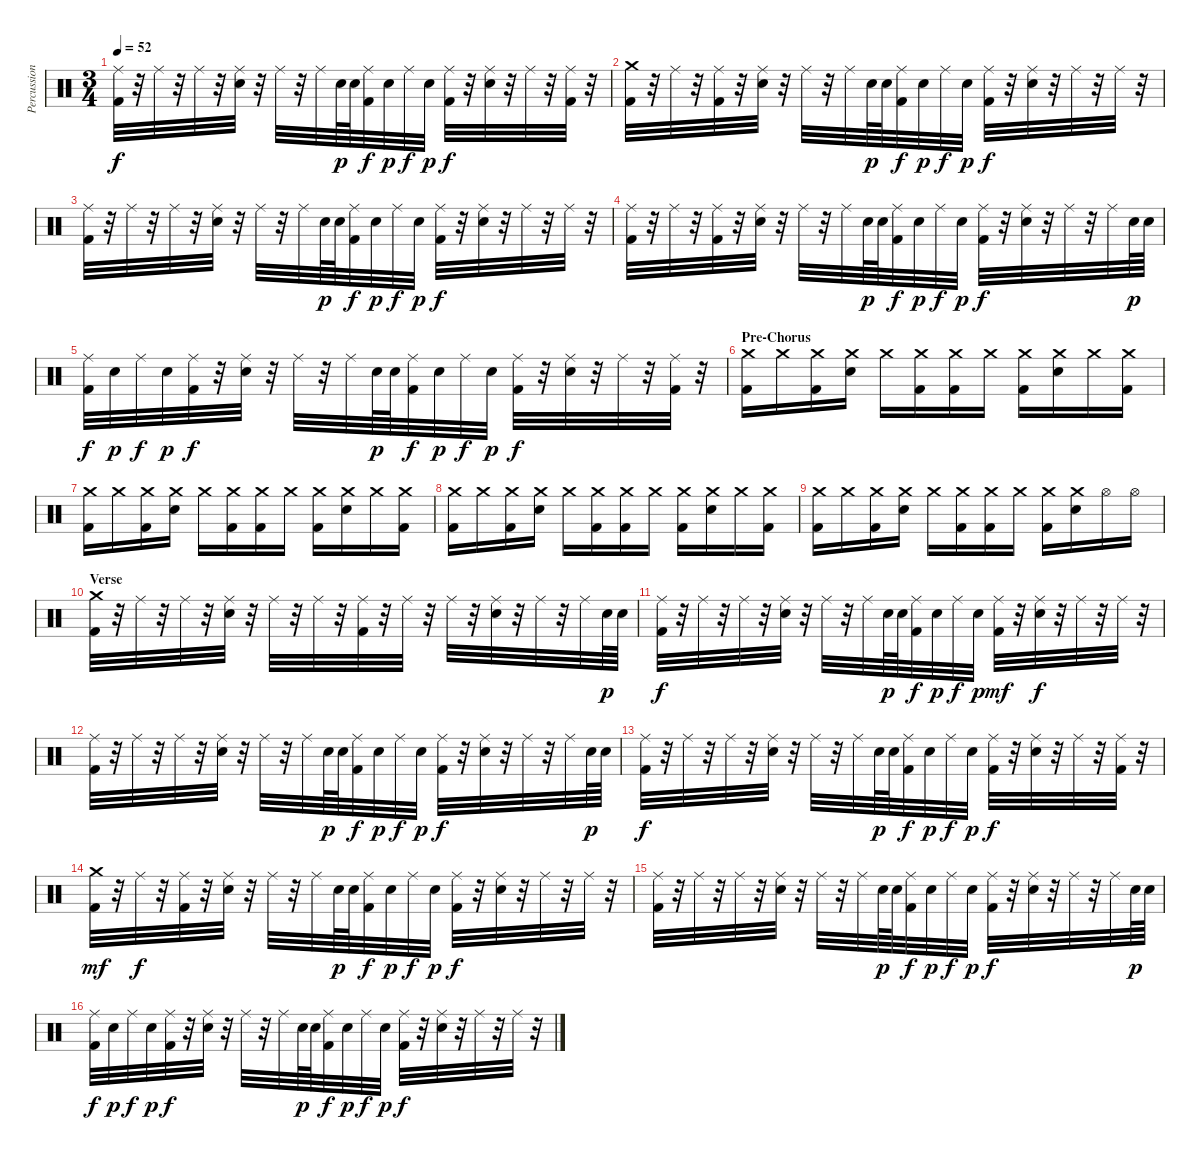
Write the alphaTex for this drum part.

\track ("Percussion" "Percussion") {instrument percussion}
\staff {score}
\articulation defaults
\ts (3 4)
\tempo 52
\clef neutral
\ks c
("Ride (middle)" "Kick (hit) 2").32{dy f} r.32 "Ride (middle)".32 r.32 "Ride (middle)".32 r.32 ("Ride (middle)" "Snare (hit) 2").32 r.32 "Ride (middle)".32 r.32 "Ride (middle)".32 "Snare (hit) 2".64{dy p} "Snare (hit) 2".64 ("Ride (middle)" "Kick (hit) 2").32{dy f} "Snare (hit) 2".32{dy p} "Ride (middle)".32{dy f} "Snare (hit) 2".32{dy p} ("Ride (middle)" "Kick (hit) 2").32{dy f} r.32 ("Ride (middle)" "Snare (hit) 2").32 r.32 "Ride (middle)".32 r.32 ("Ride (middle)" "Kick (hit) 2").32 r.32 |
("Crash medium (hit)" "Kick (hit) 2").32 r.32 "Ride (middle)".32 r.32 ("Ride (middle)" "Kick (hit) 2").32 r.32 ("Ride (middle)" "Snare (hit) 2").32 r.32 "Ride (middle)".32 r.32 "Ride (middle)".32 "Snare (hit) 2".64{dy p} "Snare (hit) 2".64 ("Ride (middle)" "Kick (hit) 2").32{dy f} "Snare (hit) 2".32{dy p} "Ride (middle)".32{dy f} "Snare (hit) 2".32{dy p} ("Ride (middle)" "Kick (hit) 2").32{dy f} r.32 ("Ride (middle)" "Snare (hit) 2").32 r.32 "Ride (middle)".32 r.32 "Ride (middle)".32 r.32 |
("Ride (middle)" "Kick (hit) 2").32 r.32 "Ride (middle)".32 r.32 "Ride (middle)".32 r.32 ("Ride (middle)" "Snare (hit) 2").32 r.32 "Ride (middle)".32 r.32 "Ride (middle)".32 "Snare (hit) 2".64{dy p} "Snare (hit) 2".64 ("Ride (middle)" "Kick (hit) 2").32{dy f} "Snare (hit) 2".32{dy p} "Ride (middle)".32{dy f} "Snare (hit) 2".32{dy p} ("Ride (middle)" "Kick (hit) 2").32{dy f} r.32 ("Ride (middle)" "Snare (hit) 2").32 r.32 "Ride (middle)".32 r.32 "Ride (middle)".32 r.32 |
("Ride (middle)" "Kick (hit) 2").32 r.32 "Ride (middle)".32 r.32 ("Ride (middle)" "Kick (hit) 2").32 r.32 ("Ride (middle)" "Snare (hit) 2").32 r.32 "Ride (middle)".32 r.32 "Ride (middle)".32 "Snare (hit) 2".64{dy p} "Snare (hit) 2".64 ("Ride (middle)" "Kick (hit) 2").32{dy f} "Snare (hit) 2".32{dy p} "Ride (middle)".32{dy f} "Snare (hit) 2".32{dy p} ("Ride (middle)" "Kick (hit) 2").32{dy f} r.32 ("Ride (middle)" "Snare (hit) 2").32 r.32 "Ride (middle)".32 r.32 "Ride (middle)".32 "Snare (hit) 2".64{dy p} "Snare (hit) 2".64 |
("Ride (middle)" "Kick (hit) 2").32{dy f} "Snare (hit) 2".32{dy p} "Ride (middle)".32{dy f} "Snare (hit) 2".32{dy p} ("Ride (middle)" "Kick (hit) 2").32{dy f} r.32 ("Ride (middle)" "Snare (hit) 2").32 r.32 "Ride (middle)".32 r.32 "Ride (middle)".32 "Snare (hit) 2".64{dy p} "Snare (hit) 2".64 ("Ride (middle)" "Kick (hit) 2").32{dy f} "Snare (hit) 2".32{dy p} "Ride (middle)".32{dy f} "Snare (hit) 2".32{dy p} ("Ride (middle)" "Kick (hit) 2").32{dy f} r.32 ("Ride (middle)" "Snare (hit) 2").32 r.32 "Ride (middle)".32 r.32 ("Ride (middle)" "Kick (hit) 2").32 r.32 |
\section ("" "Pre-Chorus")
("Crash medium (hit)" "Kick (hit) 2").16 "Crash medium (hit)".16 ("Crash medium (hit)" "Kick (hit) 2").16 ("Crash medium (hit)" "Snare (hit) 2").16 "Crash medium (hit)".16 ("Crash medium (hit)" "Kick (hit) 2").16 ("Crash medium (hit)" "Kick (hit) 2").16 "Crash medium (hit)".16 ("Crash medium (hit)" "Kick (hit) 2").16 ("Crash medium (hit)" "Snare (hit) 2").16 "Crash medium (hit)".16 ("Crash medium (hit)" "Kick (hit) 2").16 |
("Crash medium (hit)" "Kick (hit) 2").16 "Crash medium (hit)".16 ("Crash medium (hit)" "Kick (hit) 2").16 ("Crash medium (hit)" "Snare (hit) 2").16 "Crash medium (hit)".16 ("Crash medium (hit)" "Kick (hit) 2").16 ("Crash medium (hit)" "Kick (hit) 2").16 "Crash medium (hit)".16 ("Crash medium (hit)" "Kick (hit) 2").16 ("Crash medium (hit)" "Snare (hit) 2").16 "Crash medium (hit)".16 ("Crash medium (hit)" "Kick (hit) 2").16 |
("Crash medium (hit)" "Kick (hit) 2").16 "Crash medium (hit)".16 ("Crash medium (hit)" "Kick (hit) 2").16 ("Crash medium (hit)" "Snare (hit) 2").16 "Crash medium (hit)".16 ("Crash medium (hit)" "Kick (hit) 2").16 ("Crash medium (hit)" "Kick (hit) 2").16 "Crash medium (hit)".16 ("Crash medium (hit)" "Kick (hit) 2").16 ("Crash medium (hit)" "Snare (hit) 2").16 "Crash medium (hit)".16 ("Crash medium (hit)" "Kick (hit) 2").16 |
("Crash medium (hit)" "Kick (hit) 2").16 "Crash medium (hit)".16 ("Crash medium (hit)" "Kick (hit) 2").16 ("Crash medium (hit)" "Snare (hit) 2").16 "Crash medium (hit)".16 ("Crash medium (hit)" "Kick (hit) 2").16 ("Crash medium (hit)" "Kick (hit) 2").16 "Crash medium (hit)".16 ("Crash medium (hit)" "Kick (hit) 2").16 ("Crash medium (hit)" "Snare (hit) 2").16 "Hi-Hat (open)".16 "Hi-Hat (open)".16 |
\section ("" "Verse")
("Crash medium (hit)" "Kick (hit) 2").32 r.32 "Ride (middle)".32 r.32 "Ride (middle)".32 r.32 ("Ride (middle)" "Snare (hit) 2").32 r.32 "Ride (middle)".32 r.32 "Ride (middle)".32 r.32 ("Ride (middle)" "Kick (hit) 2").32 r.32 "Ride (middle)".32 r.32 "Ride (middle)".32 r.32 ("Ride (middle)" "Snare (hit) 2").32 r.32 "Ride (middle)".32 r.32 "Ride (middle)".32 "Snare (hit) 2".64{dy p} "Snare (hit) 2".64 |
("Ride (middle)" "Kick (hit) 2").32{dy f} r.32 "Ride (middle)".32 r.32 "Ride (middle)".32 r.32 ("Ride (middle)" "Snare (hit) 2").32 r.32 "Ride (middle)".32 r.32 "Ride (middle)".32 "Snare (hit) 2".64{dy p} "Snare (hit) 2".64 ("Ride (middle)" "Kick (hit) 2").32{dy f} "Snare (hit) 2".32{dy p} "Ride (middle)".32{dy f} "Snare (hit) 2".32{dy p} ("Ride (middle)" "Kick (hit) 2").32{dy mf} r.32 ("Ride (middle)" "Snare (hit) 2").32{dy f} r.32 "Ride (middle)".32 r.32 "Ride (middle)".32 r.32 |
("Ride (middle)" "Kick (hit) 2").32 r.32 "Ride (middle)".32 r.32 "Ride (middle)".32 r.32 ("Ride (middle)" "Snare (hit) 2").32 r.32 "Ride (middle)".32 r.32 "Ride (middle)".32 "Snare (hit) 2".64{dy p} "Snare (hit) 2".64 ("Ride (middle)" "Kick (hit) 2").32{dy f} "Snare (hit) 2".32{dy p} "Ride (middle)".32{dy f} "Snare (hit) 2".32{dy p} ("Ride (middle)" "Kick (hit) 2").32{dy f} r.32 ("Ride (middle)" "Snare (hit) 2").32 r.32 "Ride (middle)".32 r.32 "Ride (middle)".32 "Snare (hit) 2".64{dy p} "Snare (hit) 2".64 |
("Ride (middle)" "Kick (hit) 2").32{dy f} r.32 "Ride (middle)".32 r.32 "Ride (middle)".32 r.32 ("Ride (middle)" "Snare (hit) 2").32 r.32 "Ride (middle)".32 r.32 "Ride (middle)".32 "Snare (hit) 2".64{dy p} "Snare (hit) 2".64 ("Ride (middle)" "Kick (hit) 2").32{dy f} "Snare (hit) 2".32{dy p} "Ride (middle)".32{dy f} "Snare (hit) 2".32{dy p} ("Ride (middle)" "Kick (hit) 2").32{dy f} r.32 ("Ride (middle)" "Snare (hit) 2").32 r.32 "Ride (middle)".32 r.32 ("Ride (middle)" "Kick (hit) 2").32 r.32 |
("Crash medium (hit)" "Kick (hit) 2").32{dy mf} r.32 "Ride (middle)".32{dy f} r.32 ("Ride (middle)" "Kick (hit) 2").32 r.32 ("Ride (middle)" "Snare (hit) 2").32 r.32 "Ride (middle)".32 r.32 "Ride (middle)".32 "Snare (hit) 2".64{dy p} "Snare (hit) 2".64 ("Ride (middle)" "Kick (hit) 2").32{dy f} "Snare (hit) 2".32{dy p} "Ride (middle)".32{dy f} "Snare (hit) 2".32{dy p} ("Ride (middle)" "Kick (hit) 2").32{dy f} r.32 ("Ride (middle)" "Snare (hit) 2").32 r.32 "Ride (middle)".32 r.32 "Ride (middle)".32 r.32 |
("Ride (middle)" "Kick (hit) 2").32 r.32 "Ride (middle)".32 r.32 "Ride (middle)".32 r.32 ("Ride (middle)" "Snare (hit) 2").32 r.32 "Ride (middle)".32 r.32 "Ride (middle)".32 "Snare (hit) 2".64{dy p} "Snare (hit) 2".64 ("Ride (middle)" "Kick (hit) 2").32{dy f} "Snare (hit) 2".32{dy p} "Ride (middle)".32{dy f} "Snare (hit) 2".32{dy p} ("Ride (middle)" "Kick (hit) 2").32{dy f} r.32 ("Ride (middle)" "Snare (hit) 2").32 r.32 "Ride (middle)".32 r.32 "Ride (middle)".32 "Snare (hit) 2".64{dy p} "Snare (hit) 2".64 |
("Ride (middle)" "Kick (hit) 2").32{dy f} "Snare (hit) 2".32{dy p} "Ride (middle)".32{dy f} "Snare (hit) 2".32{dy p} ("Ride (middle)" "Kick (hit) 2").32{dy f} r.32 ("Ride (middle)" "Snare (hit) 2").32 r.32 "Ride (middle)".32 r.32 "Ride (middle)".32 "Snare (hit) 2".64{dy p} "Snare (hit) 2".64 ("Ride (middle)" "Kick (hit) 2").32{dy f} "Snare (hit) 2".32{dy p} "Ride (middle)".32{dy f} "Snare (hit) 2".32{dy p} ("Ride (middle)" "Kick (hit) 2").32{dy f} r.32 ("Ride (middle)" "Snare (hit) 2").32 r.32 "Ride (middle)".32 r.32 "Ride (middle)".32 r.32
